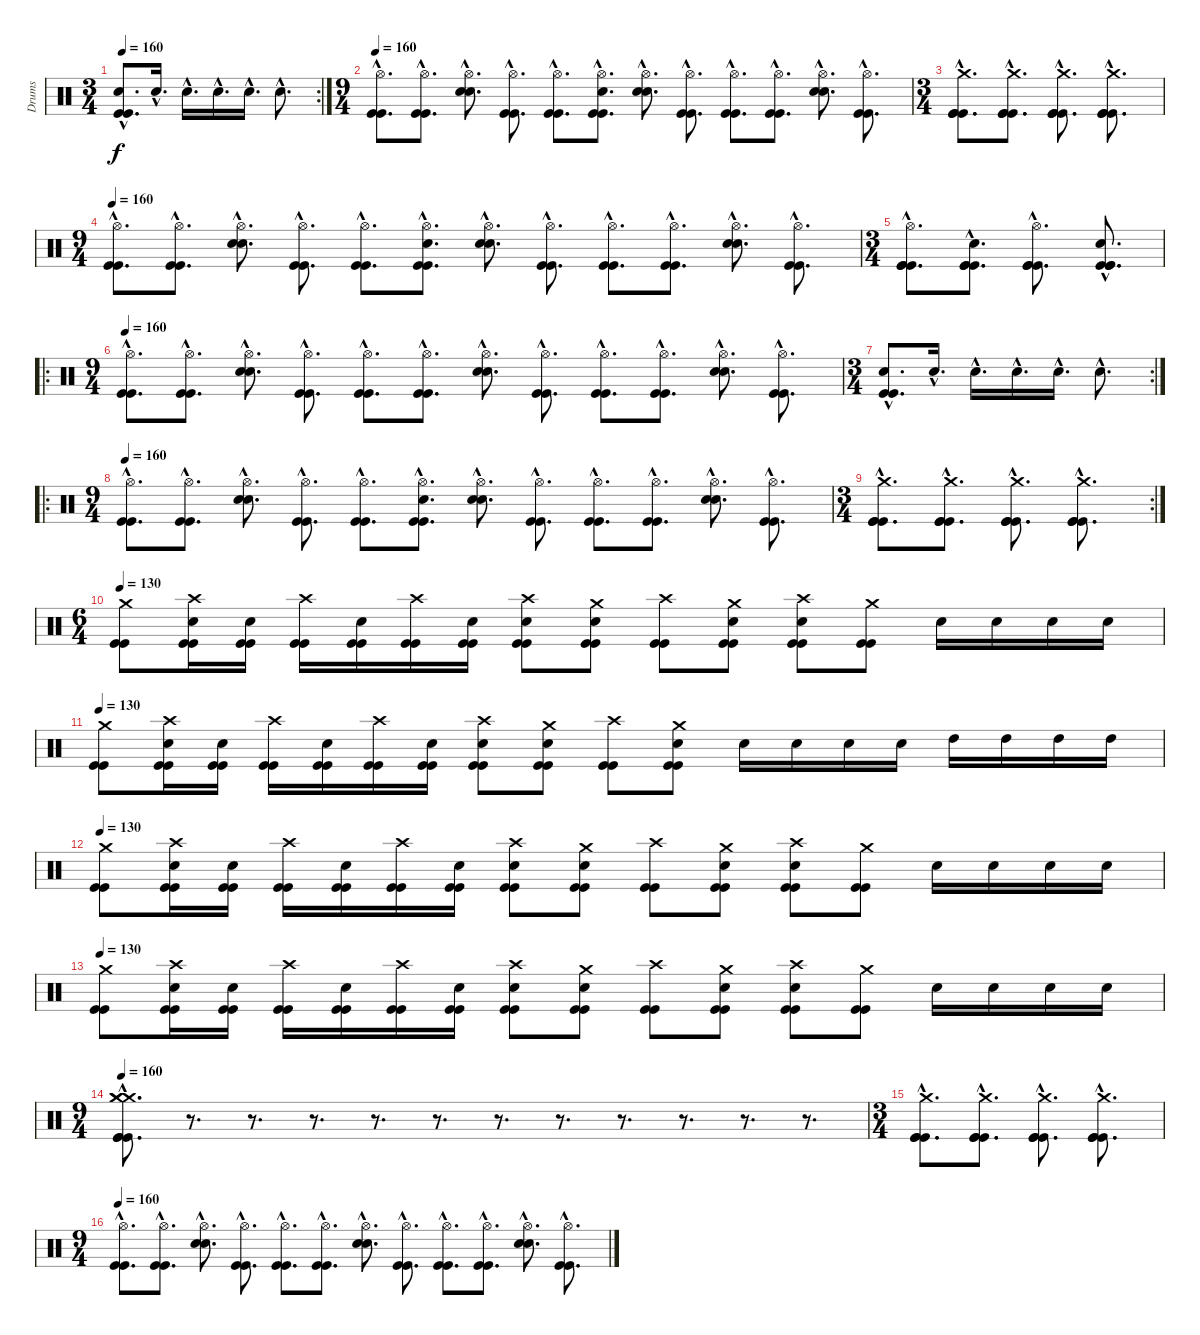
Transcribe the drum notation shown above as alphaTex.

\track ("Drums" "Drums") {instrument percussion}
\staff {score}
\articulation defaults
\rc 2
\ts (3 4)
\tempo 160
\clef neutral
\ks c
("Electric Snare (hit)"{hac} "Kick (hit)"{hac} "Kick (hit)"{hac}).8{d dy f} "Electric Snare (hit)"{hac}.16{d} "Electric Snare (hit)"{hac}.16{d} "Electric Snare (hit)"{hac}.16{d} "Electric Snare (hit)"{hac}.16{d} "Electric Snare (hit)"{hac}.8{d} |
\ts (9 4)
\tempo 160
("Hi-Hat (open)"{hac} "Kick (hit)"{hac} "Kick (hit)"{hac}).8{d} ("Hi-Hat (open)"{hac} "Kick (hit)"{hac} "Kick (hit)"{hac}).8{d} ("Hi-Hat (open)"{hac} "Electric Snare (hit)"{hac} "Electric Snare (hit)"{hac}).8{d} ("Hi-Hat (open)"{hac} "Kick (hit)"{hac} "Kick (hit)"{hac}).8{d} ("Hi-Hat (open)"{hac} "Kick (hit)"{hac} "Kick (hit)"{hac}).8{d} ("Hi-Hat (open)"{hac} "Electric Snare (hit)"{hac} "Kick (hit)"{hac} "Kick (hit)"{hac}).8{d} ("Hi-Hat (open)"{hac} "Electric Snare (hit)"{hac} "Electric Snare (hit)"{hac}).8{d} ("Hi-Hat (open)"{hac} "Kick (hit)"{hac} "Kick (hit)"{hac}).8{d} ("Hi-Hat (open)"{hac} "Kick (hit)"{hac} "Kick (hit)"{hac}).8{d} ("Hi-Hat (open)"{hac} "Kick (hit)"{hac} "Kick (hit)"{hac}).8{d} ("Hi-Hat (open)"{hac} "Electric Snare (hit)"{hac} "Electric Snare (hit)"{hac}).8{d} ("Hi-Hat (open)"{hac} "Kick (hit)"{hac} "Kick (hit)"{hac}).8{d} |
\ts (3 4)
("Crash medium (hit)"{hac} "Kick (hit)"{hac} "Kick (hit)"{hac} "Kick (hit)"{hac}).8{d} ("Crash medium (hit)"{hac} "Kick (hit)"{hac} "Kick (hit)"{hac} "Kick (hit)"{hac}).8{d} ("Crash medium (hit)"{hac} "Kick (hit)"{hac} "Kick (hit)"{hac} "Kick (hit)"{hac}).8{d} ("Crash medium (hit)"{hac} "Kick (hit)"{hac} "Kick (hit)"{hac} "Kick (hit)"{hac}).8{d} |
\ts (9 4)
\tempo 160
("Hi-Hat (open)"{hac} "Kick (hit)"{hac} "Kick (hit)"{hac}).8{d} ("Hi-Hat (open)"{hac} "Kick (hit)"{hac} "Kick (hit)"{hac}).8{d} ("Hi-Hat (open)"{hac} "Electric Snare (hit)"{hac} "Electric Snare (hit)"{hac}).8{d} ("Hi-Hat (open)"{hac} "Kick (hit)"{hac} "Kick (hit)"{hac}).8{d} ("Hi-Hat (open)"{hac} "Kick (hit)"{hac} "Kick (hit)"{hac}).8{d} ("Hi-Hat (open)"{hac} "Electric Snare (hit)"{hac} "Kick (hit)"{hac} "Kick (hit)"{hac}).8{d} ("Hi-Hat (open)"{hac} "Electric Snare (hit)"{hac} "Electric Snare (hit)"{hac}).8{d} ("Hi-Hat (open)"{hac} "Kick (hit)"{hac} "Kick (hit)"{hac}).8{d} ("Hi-Hat (open)"{hac} "Kick (hit)"{hac} "Kick (hit)"{hac}).8{d} ("Hi-Hat (open)"{hac} "Kick (hit)"{hac} "Kick (hit)"{hac}).8{d} ("Hi-Hat (open)"{hac} "Electric Snare (hit)"{hac} "Electric Snare (hit)"{hac}).8{d} ("Hi-Hat (open)"{hac} "Kick (hit)"{hac} "Kick (hit)"{hac}).8{d} |
\ts (3 4)
("Hi-Hat (open)"{hac} "Kick (hit)"{hac} "Kick (hit)"{hac} "Kick (hit)"{hac}).8{d} ("Electric Snare (hit)"{hac} "Kick (hit)"{hac} "Kick (hit)"{hac} "Kick (hit)"{hac}).8{d} ("Hi-Hat (open)"{hac} "Kick (hit)"{hac} "Kick (hit)"{hac} "Kick (hit)"{hac}).8{d} ("Electric Snare (hit)"{hac} "Kick (hit)"{hac} "Kick (hit)"{hac} "Kick (hit)"{hac}).8{d} |
\ro
\ts (9 4)
\tempo 160
("Hi-Hat (open)"{hac} "Kick (hit)"{hac} "Kick (hit)"{hac}).8{d} ("Hi-Hat (open)"{hac} "Kick (hit)"{hac} "Kick (hit)"{hac}).8{d} ("Hi-Hat (open)"{hac} "Electric Snare (hit)"{hac} "Electric Snare (hit)"{hac}).8{d} ("Hi-Hat (open)"{hac} "Kick (hit)"{hac} "Kick (hit)"{hac}).8{d} ("Hi-Hat (open)"{hac} "Kick (hit)"{hac} "Kick (hit)"{hac}).8{d} ("Hi-Hat (open)"{hac} "Kick (hit)"{hac} "Kick (hit)"{hac}).8{d} ("Hi-Hat (open)"{hac} "Electric Snare (hit)"{hac} "Electric Snare (hit)"{hac}).8{d} ("Hi-Hat (open)"{hac} "Kick (hit)"{hac} "Kick (hit)"{hac}).8{d} ("Hi-Hat (open)"{hac} "Kick (hit)"{hac} "Kick (hit)"{hac}).8{d} ("Hi-Hat (open)"{hac} "Kick (hit)"{hac} "Kick (hit)"{hac}).8{d} ("Hi-Hat (open)"{hac} "Electric Snare (hit)"{hac} "Electric Snare (hit)"{hac}).8{d} ("Hi-Hat (open)"{hac} "Kick (hit)"{hac} "Kick (hit)"{hac}).8{d} |
\rc 2
\ts (3 4)
("Electric Snare (hit)"{hac} "Kick (hit)"{hac} "Kick (hit)"{hac}).8{d} "Electric Snare (hit)"{hac}.16{d} "Electric Snare (hit)"{hac}.16{d} "Electric Snare (hit)"{hac}.16{d} "Electric Snare (hit)"{hac}.16{d} "Electric Snare (hit)"{hac}.8{d} |
\ro
\ts (9 4)
\tempo 160
("Hi-Hat (open)"{hac} "Kick (hit)"{hac} "Kick (hit)"{hac}).8{d} ("Hi-Hat (open)"{hac} "Kick (hit)"{hac} "Kick (hit)"{hac}).8{d} ("Hi-Hat (open)"{hac} "Electric Snare (hit)"{hac} "Electric Snare (hit)"{hac}).8{d} ("Hi-Hat (open)"{hac} "Kick (hit)"{hac} "Kick (hit)"{hac}).8{d} ("Hi-Hat (open)"{hac} "Kick (hit)"{hac} "Kick (hit)"{hac}).8{d} ("Hi-Hat (open)"{hac} "Electric Snare (hit)"{hac} "Kick (hit)"{hac} "Kick (hit)"{hac}).8{d} ("Hi-Hat (open)"{hac} "Electric Snare (hit)"{hac} "Electric Snare (hit)"{hac}).8{d} ("Hi-Hat (open)"{hac} "Kick (hit)"{hac} "Kick (hit)"{hac}).8{d} ("Hi-Hat (open)"{hac} "Kick (hit)"{hac} "Kick (hit)"{hac}).8{d} ("Hi-Hat (open)"{hac} "Kick (hit)"{hac} "Kick (hit)"{hac}).8{d} ("Hi-Hat (open)"{hac} "Electric Snare (hit)"{hac} "Electric Snare (hit)"{hac}).8{d} ("Hi-Hat (open)"{hac} "Kick (hit)"{hac} "Kick (hit)"{hac}).8{d} |
\rc 2
\ts (3 4)
("Crash medium (hit)"{hac} "Kick (hit)"{hac} "Kick (hit)"{hac} "Kick (hit)"{hac}).8{d} ("Crash medium (hit)"{hac} "Kick (hit)"{hac} "Kick (hit)"{hac} "Kick (hit)"{hac}).8{d} ("Crash medium (hit)"{hac} "Kick (hit)"{hac} "Kick (hit)"{hac} "Kick (hit)"{hac}).8{d} ("Crash medium (hit)"{hac} "Kick (hit)"{hac} "Kick (hit)"{hac} "Kick (hit)"{hac}).8{d} |
\ts (6 4)
\tempo 130
("Crash medium (hit)" "Kick (hit)" "Kick (hit)").8 ("Crash high (hit)" "Electric Snare (hit)" "Kick (hit)" "Kick (hit)").16 ("Electric Snare (hit)" "Kick (hit)" "Kick (hit)").16 ("Crash high (hit)" "Kick (hit)" "Kick (hit)").16 ("Electric Snare (hit)" "Kick (hit)" "Kick (hit)").16 ("Crash high (hit)" "Kick (hit)" "Kick (hit)").16 ("Electric Snare (hit)" "Kick (hit)" "Kick (hit)").16 ("Crash high (hit)" "Electric Snare (hit)" "Kick (hit)" "Kick (hit)").8 ("Crash medium (hit)" "Electric Snare (hit)" "Kick (hit)" "Kick (hit)").8 ("Crash high (hit)" "Kick (hit)" "Kick (hit)").8 ("Crash medium (hit)" "Electric Snare (hit)" "Kick (hit)" "Kick (hit)").8 ("Crash high (hit)" "Electric Snare (hit)" "Kick (hit)" "Kick (hit)").8 ("Crash medium (hit)" "Kick (hit)" "Kick (hit)").8 "Electric Snare (hit)".16 "Electric Snare (hit)".16 "Electric Snare (hit)".16 "Electric Snare (hit)".16 |
\tempo 130
("Crash medium (hit)" "Kick (hit)" "Kick (hit)").8 ("Crash high (hit)" "Electric Snare (hit)" "Kick (hit)" "Kick (hit)").16 ("Electric Snare (hit)" "Kick (hit)" "Kick (hit)").16 ("Crash high (hit)" "Kick (hit)" "Kick (hit)").16 ("Electric Snare (hit)" "Kick (hit)" "Kick (hit)").16 ("Crash high (hit)" "Kick (hit)" "Kick (hit)").16 ("Electric Snare (hit)" "Kick (hit)" "Kick (hit)").16 ("Crash high (hit)" "Electric Snare (hit)" "Kick (hit)" "Kick (hit)").8 ("Crash medium (hit)" "Electric Snare (hit)" "Kick (hit)" "Kick (hit)").8 ("Crash high (hit)" "Kick (hit)" "Kick (hit)").8 ("Crash medium (hit)" "Electric Snare (hit)" "Kick (hit)" "Kick (hit)").8 "Electric Snare (hit)".16 "Electric Snare (hit)".16 "Electric Snare (hit)".16 "Electric Snare (hit)".16 "High Tom (hit)".16 "High Tom (hit)".16 "High Tom (hit)".16 "High Tom (hit)".16 |
\tempo 130
("Crash medium (hit)" "Kick (hit)" "Kick (hit)").8 ("Crash high (hit)" "Electric Snare (hit)" "Kick (hit)" "Kick (hit)").16 ("Electric Snare (hit)" "Kick (hit)" "Kick (hit)").16 ("Crash high (hit)" "Kick (hit)" "Kick (hit)").16 ("Electric Snare (hit)" "Kick (hit)" "Kick (hit)").16 ("Crash high (hit)" "Kick (hit)" "Kick (hit)").16 ("Electric Snare (hit)" "Kick (hit)" "Kick (hit)").16 ("Crash high (hit)" "Electric Snare (hit)" "Kick (hit)" "Kick (hit)").8 ("Crash medium (hit)" "Electric Snare (hit)" "Kick (hit)" "Kick (hit)").8 ("Crash high (hit)" "Kick (hit)" "Kick (hit)").8 ("Crash medium (hit)" "Electric Snare (hit)" "Kick (hit)" "Kick (hit)").8 ("Crash high (hit)" "Electric Snare (hit)" "Kick (hit)" "Kick (hit)").8 ("Crash medium (hit)" "Kick (hit)" "Kick (hit)").8 "Electric Snare (hit)".16 "Electric Snare (hit)".16 "Electric Snare (hit)".16 "Electric Snare (hit)".16 |
\tempo 130
("Crash medium (hit)" "Kick (hit)" "Kick (hit)").8 ("Crash high (hit)" "Electric Snare (hit)" "Kick (hit)" "Kick (hit)").16 ("Electric Snare (hit)" "Kick (hit)" "Kick (hit)").16 ("Crash high (hit)" "Kick (hit)" "Kick (hit)").16 ("Electric Snare (hit)" "Kick (hit)" "Kick (hit)").16 ("Crash high (hit)" "Kick (hit)" "Kick (hit)").16 ("Electric Snare (hit)" "Kick (hit)" "Kick (hit)").16 ("Crash high (hit)" "Electric Snare (hit)" "Kick (hit)" "Kick (hit)").8 ("Crash medium (hit)" "Electric Snare (hit)" "Kick (hit)" "Kick (hit)").8 ("Crash high (hit)" "Kick (hit)" "Kick (hit)").8 ("Crash medium (hit)" "Electric Snare (hit)" "Kick (hit)" "Kick (hit)").8 ("Crash high (hit)" "Electric Snare (hit)" "Kick (hit)" "Kick (hit)").8 ("Crash medium (hit)" "Kick (hit)" "Kick (hit)").8 "Electric Snare (hit)".16 "Electric Snare (hit)".16 "Electric Snare (hit)".16 "Electric Snare (hit)".16 |
\ts (9 4)
\tempo 160
("Crash medium (hit)"{hac} "Crash medium (hit)"{hac} "Crash medium (hit)"{hac} "Kick (hit)"{hac} "Kick (hit)"{hac} "Kick (hit)"{hac}).8{d} r.8{d} r.8{d} r.8{d} r.8{d} r.8{d} r.8{d} r.8{d} r.8{d} r.8{d} r.8{d} r.8{d} |
\ts (3 4)
("Crash medium (hit)"{hac} "Kick (hit)"{hac} "Kick (hit)"{hac} "Kick (hit)"{hac}).8{d} ("Crash medium (hit)"{hac} "Kick (hit)"{hac} "Kick (hit)"{hac} "Kick (hit)"{hac}).8{d} ("Crash medium (hit)"{hac} "Kick (hit)"{hac} "Kick (hit)"{hac} "Kick (hit)"{hac}).8{d} ("Crash medium (hit)"{hac} "Kick (hit)"{hac} "Kick (hit)"{hac} "Kick (hit)"{hac}).8{d} |
\ts (9 4)
\tempo 160
("Hi-Hat (open)"{hac} "Kick (hit)"{hac} "Kick (hit)"{hac}).8{d} ("Hi-Hat (open)"{hac} "Kick (hit)"{hac} "Kick (hit)"{hac}).8{d} ("Hi-Hat (open)"{hac} "Electric Snare (hit)"{hac} "Electric Snare (hit)"{hac}).8{d} ("Hi-Hat (open)"{hac} "Kick (hit)"{hac} "Kick (hit)"{hac}).8{d} ("Hi-Hat (open)"{hac} "Kick (hit)"{hac} "Kick (hit)"{hac}).8{d} ("Hi-Hat (open)"{hac} "Kick (hit)"{hac} "Kick (hit)"{hac}).8{d} ("Hi-Hat (open)"{hac} "Electric Snare (hit)"{hac} "Electric Snare (hit)"{hac}).8{d} ("Hi-Hat (open)"{hac} "Kick (hit)"{hac} "Kick (hit)"{hac}).8{d} ("Hi-Hat (open)"{hac} "Kick (hit)"{hac} "Kick (hit)"{hac}).8{d} ("Hi-Hat (open)"{hac} "Kick (hit)"{hac} "Kick (hit)"{hac}).8{d} ("Hi-Hat (open)"{hac} "Electric Snare (hit)"{hac} "Electric Snare (hit)"{hac}).8{d} ("Hi-Hat (open)"{hac} "Kick (hit)"{hac} "Kick (hit)"{hac}).8{d}
